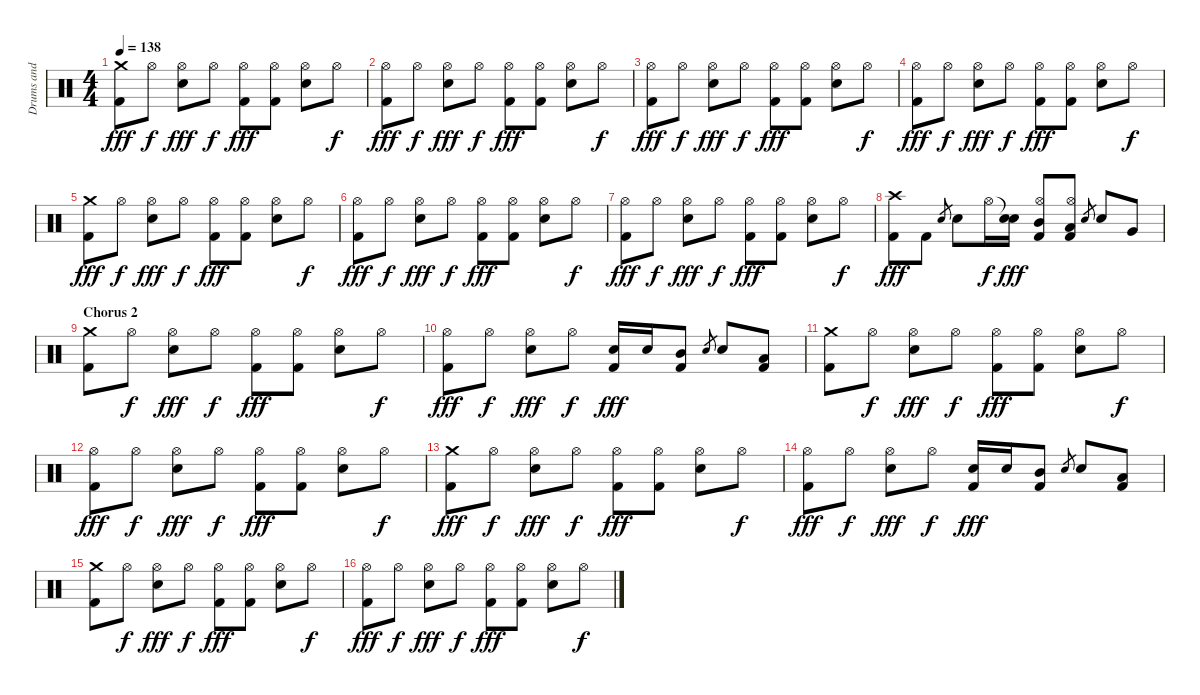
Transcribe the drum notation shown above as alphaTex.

\track ("Drums and Percussion" "Drums and ") {instrument percussion}
\staff {score}
\articulation defaults
\ts (4 4)
\tempo 138
\clef neutral
\ks c
("Crash medium (hit)" "Kick (hit) 2").8{dy fff} "Hi-Hat (open)".8{dy f} ("Hi-Hat (open)" "Snare (hit) 2").8{dy fff} "Hi-Hat (open)".8{dy f} ("Hi-Hat (open)" "Kick (hit) 2").8{dy fff} ("Hi-Hat (open)" "Kick (hit) 2").8 ("Hi-Hat (open)" "Snare (hit) 2").8 "Hi-Hat (open)".8{dy f} |
("Hi-Hat (open)" "Kick (hit) 2").8{dy fff} "Hi-Hat (open)".8{dy f} ("Hi-Hat (open)" "Snare (hit) 2").8{dy fff} "Hi-Hat (open)".8{dy f} ("Hi-Hat (open)" "Kick (hit) 2").8{dy fff} ("Hi-Hat (open)" "Kick (hit) 2").8 ("Hi-Hat (open)" "Snare (hit) 2").8 "Hi-Hat (open)".8{dy f} |
("Hi-Hat (open)" "Kick (hit) 2").8{dy fff} "Hi-Hat (open)".8{dy f} ("Hi-Hat (open)" "Snare (hit) 2").8{dy fff} "Hi-Hat (open)".8{dy f} ("Hi-Hat (open)" "Kick (hit) 2").8{dy fff} ("Hi-Hat (open)" "Kick (hit) 2").8 ("Hi-Hat (open)" "Snare (hit) 2").8 "Hi-Hat (open)".8{dy f} |
("Hi-Hat (open)" "Kick (hit) 2").8{dy fff} "Hi-Hat (open)".8{dy f} ("Hi-Hat (open)" "Snare (hit) 2").8{dy fff} "Hi-Hat (open)".8{dy f} ("Hi-Hat (open)" "Kick (hit) 2").8{dy fff} ("Hi-Hat (open)" "Kick (hit) 2").8 ("Hi-Hat (open)" "Snare (hit) 2").8 "Hi-Hat (open)".8{dy f} |
("Crash medium (hit)" "Kick (hit) 2").8{dy fff} "Hi-Hat (open)".8{dy f} ("Hi-Hat (open)" "Snare (hit) 2").8{dy fff} "Hi-Hat (open)".8{dy f} ("Hi-Hat (open)" "Kick (hit) 2").8{dy fff} ("Hi-Hat (open)" "Kick (hit) 2").8 ("Hi-Hat (open)" "Snare (hit) 2").8 "Hi-Hat (open)".8{dy f} |
("Hi-Hat (open)" "Kick (hit) 2").8{dy fff} "Hi-Hat (open)".8{dy f} ("Hi-Hat (open)" "Snare (hit) 2").8{dy fff} "Hi-Hat (open)".8{dy f} ("Hi-Hat (open)" "Kick (hit) 2").8{dy fff} ("Hi-Hat (open)" "Kick (hit) 2").8 ("Hi-Hat (open)" "Snare (hit) 2").8 "Hi-Hat (open)".8{dy f} |
("Hi-Hat (open)" "Kick (hit) 2").8{dy fff} "Hi-Hat (open)".8{dy f} ("Hi-Hat (open)" "Snare (hit) 2").8{dy fff} "Hi-Hat (open)".8{dy f} ("Hi-Hat (open)" "Kick (hit) 2").8{dy fff} ("Hi-Hat (open)" "Kick (hit) 2").8 ("Hi-Hat (open)" "Snare (hit) 2").8 "Hi-Hat (open)".8{dy f} |
("Crash high (hit)" "Kick (hit) 2").8{dy fff} "Kick (hit) 2".8 "Snare (hit) 2".8{gr} "Snare (hit) 2".8 "Hi-Hat (open)".16{dy f} ("Snare (hit)"{t} "Snare (hit) 2").16{dy fff} ("Hi-Hat (open)" "Mid Tom (hit)" "Kick (hit) 2").8 ("Hi-Hat (open)" "Low Tom (hit)" "Kick (hit) 2").8 "Snare (hit) 2".8{gr} "Snare (hit) 2".8 "Very Low Tom (hit)".8 |
\section ("" "Chorus 2")
("Crash medium (hit)" "Kick (hit) 2").8 "Hi-Hat (open)".8{dy f} ("Hi-Hat (open)" "Snare (hit) 2").8{dy fff} "Hi-Hat (open)".8{dy f} ("Hi-Hat (open)" "Kick (hit) 2").8{dy fff} ("Hi-Hat (open)" "Kick (hit) 2").8 ("Hi-Hat (open)" "Snare (hit) 2").8 "Hi-Hat (open)".8{dy f} |
("Hi-Hat (open)" "Kick (hit) 2").8{dy fff} "Hi-Hat (open)".8{dy f} ("Hi-Hat (open)" "Snare (hit) 2").8{dy fff} "Hi-Hat (open)".8{dy f} ("Snare (hit) 2" "Kick (hit) 2").16{dy fff} "Snare (hit) 2".16 ("Mid Tom (hit)" "Kick (hit) 2").8 "Snare (hit) 2".8{gr} "Snare (hit) 2".8 ("Low Tom (hit)" "Kick (hit) 2").8 |
("Crash medium (hit)" "Kick (hit) 2").8 "Hi-Hat (open)".8{dy f} ("Hi-Hat (open)" "Snare (hit) 2").8{dy fff} "Hi-Hat (open)".8{dy f} ("Hi-Hat (open)" "Kick (hit) 2").8{dy fff} ("Hi-Hat (open)" "Kick (hit) 2").8 ("Hi-Hat (open)" "Snare (hit) 2").8 "Hi-Hat (open)".8{dy f} |
("Hi-Hat (open)" "Kick (hit) 2").8{dy fff} "Hi-Hat (open)".8{dy f} ("Hi-Hat (open)" "Snare (hit) 2").8{dy fff} "Hi-Hat (open)".8{dy f} ("Hi-Hat (open)" "Kick (hit) 2").8{dy fff} ("Hi-Hat (open)" "Kick (hit) 2").8 ("Hi-Hat (open)" "Snare (hit) 2").8 "Hi-Hat (open)".8{dy f} |
("Crash medium (hit)" "Kick (hit) 2").8{dy fff} "Hi-Hat (open)".8{dy f} ("Hi-Hat (open)" "Snare (hit) 2").8{dy fff} "Hi-Hat (open)".8{dy f} ("Hi-Hat (open)" "Kick (hit) 2").8{dy fff} ("Hi-Hat (open)" "Kick (hit) 2").8 ("Hi-Hat (open)" "Snare (hit) 2").8 "Hi-Hat (open)".8{dy f} |
("Hi-Hat (open)" "Kick (hit) 2").8{dy fff} "Hi-Hat (open)".8{dy f} ("Hi-Hat (open)" "Snare (hit) 2").8{dy fff} "Hi-Hat (open)".8{dy f} ("Snare (hit) 2" "Kick (hit) 2").16{dy fff} "Snare (hit) 2".16 ("Mid Tom (hit)" "Kick (hit) 2").8 "Snare (hit) 2".8{gr} "Snare (hit) 2".8 ("Low Tom (hit)" "Kick (hit) 2").8 |
("Crash medium (hit)" "Kick (hit) 2").8 "Hi-Hat (open)".8{dy f} ("Hi-Hat (open)" "Snare (hit) 2").8{dy fff} "Hi-Hat (open)".8{dy f} ("Hi-Hat (open)" "Kick (hit) 2").8{dy fff} ("Hi-Hat (open)" "Kick (hit) 2").8 ("Hi-Hat (open)" "Snare (hit) 2").8 "Hi-Hat (open)".8{dy f} |
("Hi-Hat (open)" "Kick (hit) 2").8{dy fff} "Hi-Hat (open)".8{dy f} ("Hi-Hat (open)" "Snare (hit) 2").8{dy fff} "Hi-Hat (open)".8{dy f} ("Hi-Hat (open)" "Kick (hit) 2").8{dy fff} ("Hi-Hat (open)" "Kick (hit) 2").8 ("Hi-Hat (open)" "Snare (hit) 2").8 "Hi-Hat (open)".8{dy f}
